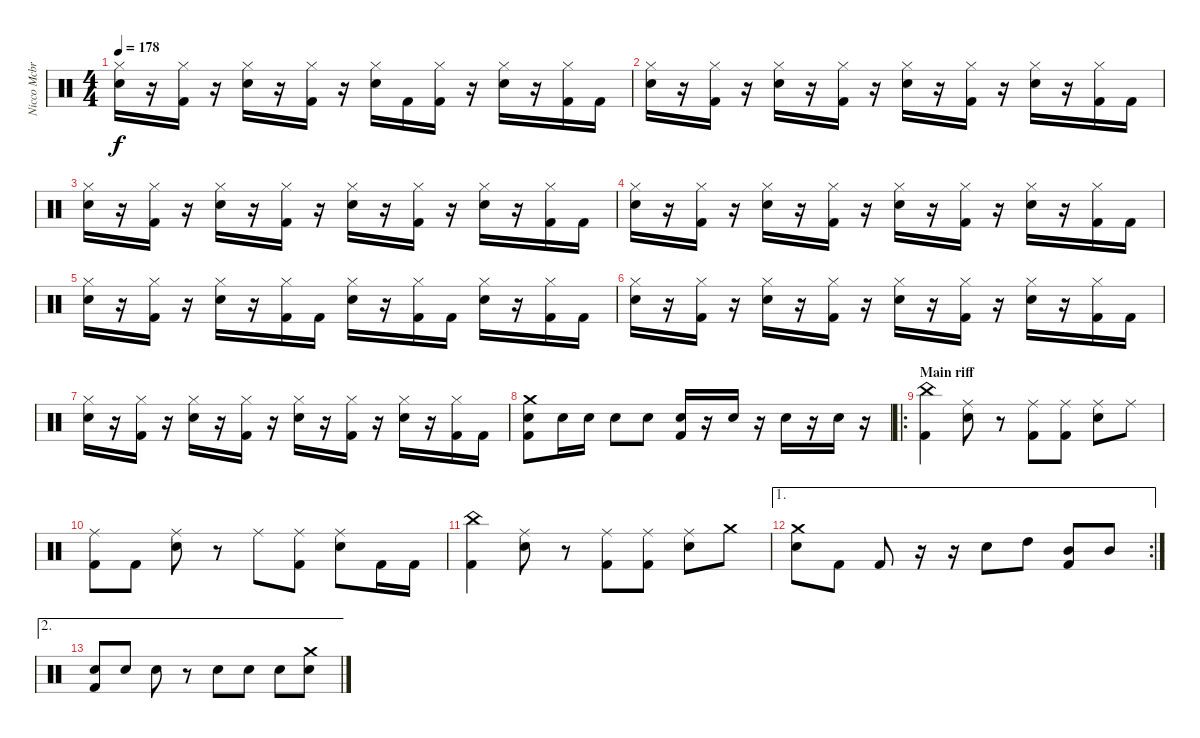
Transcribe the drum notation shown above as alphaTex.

\track ("Nicco Mcbrian - Drums" "Nicco Mcbr") {instrument percussion}
\staff {score}
\articulation defaults
\ts (4 4)
\tempo 178
\clef neutral
\ks c
("Hi-Hat (closed)" "Snare (hit) 2").16{dy f} r.16 ("Hi-Hat (closed)" "Kick (hit) 2").16 r.16 ("Hi-Hat (closed)" "Snare (hit) 2").16 r.16 ("Hi-Hat (closed)" "Kick (hit) 2").16 r.16 ("Hi-Hat (closed)" "Snare (hit) 2").16 "Kick (hit) 2".16 ("Hi-Hat (closed)" "Kick (hit) 2").16 r.16 ("Hi-Hat (closed)" "Snare (hit) 2").16 r.16 ("Hi-Hat (closed)" "Kick (hit) 2").16 "Kick (hit) 2".16 |
("Hi-Hat (closed)" "Snare (hit) 2").16 r.16 ("Hi-Hat (closed)" "Kick (hit) 2").16 r.16 ("Hi-Hat (closed)" "Snare (hit) 2").16 r.16 ("Hi-Hat (closed)" "Kick (hit) 2").16 r.16 ("Hi-Hat (closed)" "Snare (hit) 2").16 r.16 ("Hi-Hat (closed)" "Kick (hit) 2").16 r.16 ("Hi-Hat (closed)" "Snare (hit) 2").16 r.16 ("Hi-Hat (closed)" "Kick (hit) 2").16 "Kick (hit) 2".16 |
("Hi-Hat (closed)" "Snare (hit) 2").16 r.16 ("Hi-Hat (closed)" "Kick (hit) 2").16 r.16 ("Hi-Hat (closed)" "Snare (hit) 2").16 r.16 ("Hi-Hat (closed)" "Kick (hit) 2").16 r.16 ("Hi-Hat (closed)" "Snare (hit) 2").16 r.16 ("Hi-Hat (closed)" "Kick (hit) 2").16 r.16 ("Hi-Hat (closed)" "Snare (hit) 2").16 r.16 ("Hi-Hat (closed)" "Kick (hit) 2").16 "Kick (hit) 2".16 |
("Hi-Hat (closed)" "Snare (hit) 2").16 r.16 ("Hi-Hat (closed)" "Kick (hit) 2").16 r.16 ("Hi-Hat (closed)" "Snare (hit) 2").16 r.16 ("Hi-Hat (closed)" "Kick (hit) 2").16 r.16 ("Hi-Hat (closed)" "Snare (hit) 2").16 r.16 ("Hi-Hat (closed)" "Kick (hit) 2").16 r.16 ("Hi-Hat (closed)" "Snare (hit) 2").16 r.16 ("Hi-Hat (closed)" "Kick (hit) 2").16 "Kick (hit) 2".16 |
("Hi-Hat (closed)" "Snare (hit) 2").16 r.16 ("Hi-Hat (closed)" "Kick (hit) 2").16 r.16 ("Hi-Hat (closed)" "Snare (hit) 2").16 r.16 ("Hi-Hat (closed)" "Kick (hit) 2").16 "Kick (hit) 2".16 ("Hi-Hat (closed)" "Snare (hit) 2").16 r.16 ("Hi-Hat (closed)" "Kick (hit) 2").16 "Kick (hit) 2".16 ("Hi-Hat (closed)" "Snare (hit) 2").16 r.16 ("Hi-Hat (closed)" "Kick (hit) 2").16 "Kick (hit) 2".16 |
("Hi-Hat (closed)" "Snare (hit) 2").16 r.16 ("Hi-Hat (closed)" "Kick (hit) 2").16 r.16 ("Hi-Hat (closed)" "Snare (hit) 2").16 r.16 ("Hi-Hat (closed)" "Kick (hit) 2").16 r.16 ("Hi-Hat (closed)" "Snare (hit) 2").16 r.16 ("Hi-Hat (closed)" "Kick (hit) 2").16 r.16 ("Hi-Hat (closed)" "Snare (hit) 2").16 r.16 ("Hi-Hat (closed)" "Kick (hit) 2").16 "Kick (hit) 2".16 |
("Hi-Hat (closed)" "Snare (hit) 2").16 r.16 ("Hi-Hat (closed)" "Kick (hit) 2").16 r.16 ("Hi-Hat (closed)" "Snare (hit) 2").16 r.16 ("Hi-Hat (closed)" "Kick (hit) 2").16 r.16 ("Hi-Hat (closed)" "Snare (hit) 2").16 r.16 ("Hi-Hat (closed)" "Kick (hit) 2").16 r.16 ("Hi-Hat (closed)" "Snare (hit) 2").16 r.16 ("Hi-Hat (closed)" "Kick (hit) 2").16 "Kick (hit) 2".16 |
("Crash medium (hit)" "Snare (hit) 2" "Kick (hit) 2").8 "Snare (hit) 2".16 "Snare (hit) 2".16 "Snare (hit) 2".8 "Snare (hit) 2".8 ("Snare (hit) 2" "Kick (hit) 2").16 r.16 "Snare (hit) 2".16 r.16 "Snare (hit) 2".16 r.16 "Snare (hit) 2".16 r.16 |
\ro
\section ("" "Main riff")
("China (hit)" "Kick (hit) 2").4 ("Ride (middle)" "Snare (hit) 2").8 r.8 ("Ride (middle)" "Kick (hit) 2").8 ("Ride (middle)" "Kick (hit) 2").8 ("Ride (middle)" "Snare (hit) 2").8 "Ride (middle)".8 |
("Ride (middle)" "Kick (hit) 2").8 "Kick (hit) 2".8 ("Ride (middle)" "Snare (hit) 2").8 r.8 "Ride (middle)".8 ("Ride (middle)" "Kick (hit) 2").8 ("Ride (middle)" "Snare (hit) 2").8 "Kick (hit) 2".16 "Kick (hit) 2".16 |
("China (hit)" "Kick (hit) 2").4 ("Ride (middle)" "Snare (hit) 2").8 r.8 ("Ride (middle)" "Kick (hit) 2").8 ("Ride (middle)" "Kick (hit) 2").8 ("Ride (middle)" "Snare (hit) 2").8 "Crash medium (hit)".8 |
\ae 1
\rc 2
("Crash medium (hit)" "Snare (hit) 2").8 "Kick (hit) 2".8 "Kick (hit) 2".8 r.16 r.16 "Snare (hit) 2".8 "High Tom (hit)".8 ("Mid Tom (hit)" "Kick (hit) 2").8 "Mid Tom (hit)".8 |
\ae 2
("Snare (hit) 2" "Kick (hit) 2").8 "Snare (hit) 2".8 "Snare (hit) 2".8 r.8 "Snare (hit) 2".8 "Snare (hit) 2".8 "Snare (hit) 2".8 ("Crash medium (hit)" "Snare (hit) 2").8
